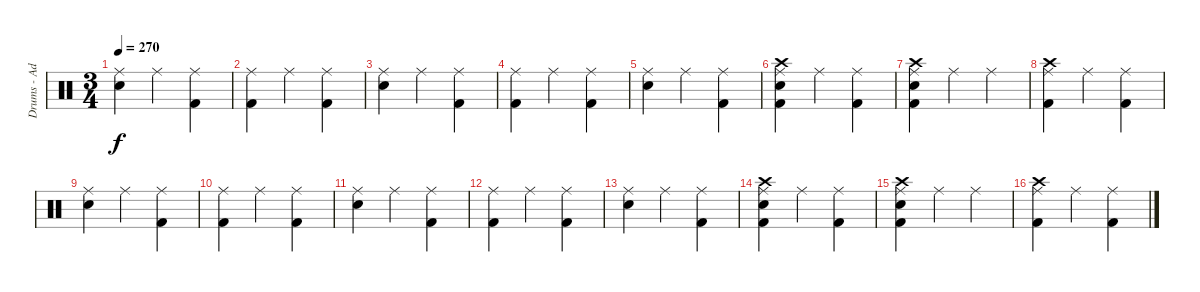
\track ("Drums - Adam" "Drums - Ad") {instrument percussion}
\staff {score}
\articulation defaults
\ts (3 4)
\tempo 270
\clef neutral
\ks c
("Ride (middle)" "Electric Snare (hit)").4{dy f} "Ride (middle)".4 ("Ride (middle)" "Kick (hit) 2").4 |
("Ride (middle)" "Kick (hit) 2").4 "Ride (middle)".4 ("Ride (middle)" "Kick (hit) 2").4 |
("Ride (middle)" "Electric Snare (hit)").4 "Ride (middle)".4 ("Ride (middle)" "Kick (hit) 2").4 |
("Ride (middle)" "Kick (hit) 2").4 "Ride (middle)".4 ("Ride (middle)" "Kick (hit) 2").4 |
("Ride (middle)" "Electric Snare (hit)").4 "Ride (middle)".4 ("Ride (middle)" "Kick (hit) 2").4 |
("Ride (middle)" "Kick (hit) 2" "Electric Snare (hit)" "Crash high (hit)").4 "Ride (middle)".4 ("Ride (middle)" "Kick (hit) 2").4 |
("Ride (middle)" "Kick (hit) 2" "Electric Snare (hit)" "Crash high (hit)").4 "Ride (middle)".4 "Ride (middle)".4 |
("Ride (middle)" "Kick (hit) 2" "Crash high (hit)").4 "Ride (middle)".4 ("Ride (middle)" "Kick (hit) 2").4 |
("Ride (middle)" "Electric Snare (hit)").4 "Ride (middle)".4 ("Ride (middle)" "Kick (hit) 2").4 |
("Ride (middle)" "Kick (hit) 2").4 "Ride (middle)".4 ("Ride (middle)" "Kick (hit) 2").4 |
("Ride (middle)" "Electric Snare (hit)").4 "Ride (middle)".4 ("Ride (middle)" "Kick (hit) 2").4 |
("Ride (middle)" "Kick (hit) 2").4 "Ride (middle)".4 ("Ride (middle)" "Kick (hit) 2").4 |
("Ride (middle)" "Electric Snare (hit)").4 "Ride (middle)".4 ("Ride (middle)" "Kick (hit) 2").4 |
("Ride (middle)" "Kick (hit) 2" "Electric Snare (hit)" "Crash high (hit)").4 "Ride (middle)".4 ("Ride (middle)" "Kick (hit) 2").4 |
("Ride (middle)" "Kick (hit) 2" "Electric Snare (hit)" "Crash high (hit)").4 "Ride (middle)".4 "Ride (middle)".4 |
("Ride (middle)" "Kick (hit) 2" "Crash high (hit)").4 "Ride (middle)".4 ("Ride (middle)" "Kick (hit) 2").4
